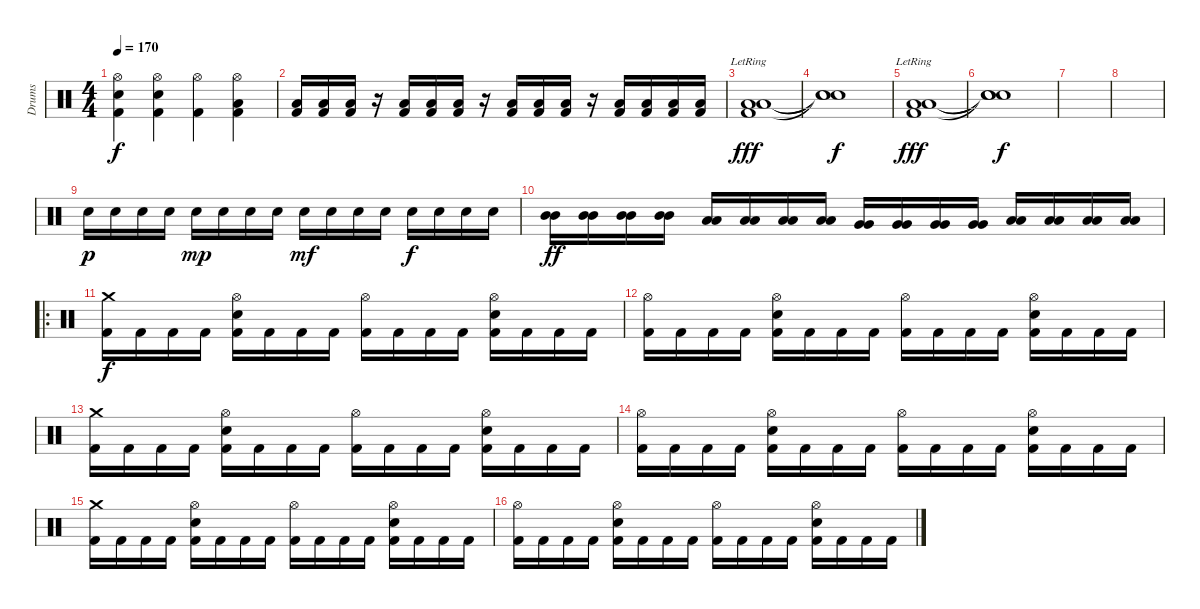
\track ("Drums" "Drums") {instrument percussion}
\staff {score}
\articulation defaults
\ts (4 4)
\tempo 170
\clef neutral
\ks c
("Hi-Hat (open)" "Snare (hit) 2" "Kick (hit) 2").4{dy f} ("Hi-Hat (open)" "Snare (hit) 2" "Kick (hit) 2").4 ("Hi-Hat (open)" "Kick (hit) 2").4 ("Hi-Hat (open)" "Low Tom (hit)" "Kick (hit) 2").4 |
("Low Floor Tom (hit)" "Kick (hit) 2").16 ("Low Floor Tom (hit)" "Kick (hit) 2").16 ("Low Floor Tom (hit)" "Kick (hit) 2").16 r.16 ("Low Floor Tom (hit)" "Kick (hit) 2").16 ("Low Floor Tom (hit)" "Kick (hit) 2").16 ("Low Floor Tom (hit)" "Kick (hit) 2").16 r.16 ("Low Floor Tom (hit)" "Kick (hit) 2").16 ("Low Floor Tom (hit)" "Kick (hit) 2").16 ("Low Floor Tom (hit)" "Kick (hit) 2").16 r.16 ("Low Floor Tom (hit)" "Kick (hit) 2").16 ("Low Floor Tom (hit)" "Kick (hit) 2").16 ("Low Floor Tom (hit)" "Kick (hit) 2").16 ("Low Floor Tom (hit)" "Kick (hit) 2").16 |
("Low Floor Tom (hit)"{lr} "Low Floor Tom (hit)"{lr} "Kick (hit) 2"{lr}).1{dy fff volume 16} |
("Snare (hit)"{t} "Snare (hit)"{t} "Snare (hit)"{t}).1{dy f} |
("Low Floor Tom (hit)"{lr} "Low Floor Tom (hit)"{lr} "Kick (hit) 2"{lr}).1{dy fff} |
("Snare (hit)"{t} "Snare (hit)"{t} "Snare (hit)"{t}).1{dy f} |
|
|
"Snare (hit) 2".16{dy p} "Snare (hit) 2".16 "Snare (hit) 2".16 "Snare (hit) 2".16 "Snare (hit) 2".16{dy mp} "Snare (hit) 2".16 "Snare (hit) 2".16 "Snare (hit) 2".16 "Snare (hit) 2".16{dy mf} "Snare (hit) 2".16 "Snare (hit) 2".16 "Snare (hit) 2".16 "Snare (hit) 2".16{dy f} "Snare (hit) 2".16 "Snare (hit) 2".16 "Snare (hit) 2".16 |
("Mid Tom (hit)" "Mid Tom (hit)").16{dy ff} ("Mid Tom (hit)" "Mid Tom (hit)").16 ("Mid Tom (hit)" "Mid Tom (hit)").16 ("Mid Tom (hit)" "Mid Tom (hit)").16 ("Low Tom (hit)" "Low Tom (hit)").16 ("Low Tom (hit)" "Low Tom (hit)").16 ("Low Tom (hit)" "Low Tom (hit)").16 ("Low Tom (hit)" "Low Tom (hit)").16 ("Very Low Tom (hit)" "Very Low Tom (hit)").16 ("Very Low Tom (hit)" "Very Low Tom (hit)").16 ("Very Low Tom (hit)" "Very Low Tom (hit)").16 ("Very Low Tom (hit)" "Very Low Tom (hit)").16 ("Low Floor Tom (hit)" "Low Floor Tom (hit)").16 ("Low Floor Tom (hit)" "Low Floor Tom (hit)").16 ("Low Floor Tom (hit)" "Low Floor Tom (hit)").16 ("Low Floor Tom (hit)" "Low Floor Tom (hit)").16 |
\ro
("Crash medium (hit)" "Kick (hit) 2").16{dy f} "Kick (hit) 2".16 "Kick (hit) 2".16 "Kick (hit) 2".16 ("Hi-Hat (open)" "Snare (hit) 2" "Kick (hit) 2").16 "Kick (hit) 2".16 "Kick (hit) 2".16 "Kick (hit) 2".16 ("Hi-Hat (open)" "Kick (hit) 2").16 "Kick (hit) 2".16 "Kick (hit) 2".16 "Kick (hit) 2".16 ("Hi-Hat (open)" "Snare (hit) 2" "Kick (hit) 2").16 "Kick (hit) 2".16 "Kick (hit) 2".16 "Kick (hit) 2".16 |
("Hi-Hat (open)" "Kick (hit) 2").16 "Kick (hit) 2".16 "Kick (hit) 2".16 "Kick (hit) 2".16 ("Hi-Hat (open)" "Snare (hit) 2" "Kick (hit) 2").16 "Kick (hit) 2".16 "Kick (hit) 2".16 "Kick (hit) 2".16 ("Hi-Hat (open)" "Kick (hit) 2").16 "Kick (hit) 2".16 "Kick (hit) 2".16 "Kick (hit) 2".16 ("Hi-Hat (open)" "Snare (hit) 2" "Kick (hit) 2").16 "Kick (hit) 2".16 "Kick (hit) 2".16 "Kick (hit) 2".16 |
("Crash medium (hit)" "Kick (hit) 2").16 "Kick (hit) 2".16 "Kick (hit) 2".16 "Kick (hit) 2".16 ("Hi-Hat (open)" "Snare (hit) 2" "Kick (hit) 2").16 "Kick (hit) 2".16 "Kick (hit) 2".16 "Kick (hit) 2".16 ("Hi-Hat (open)" "Kick (hit) 2").16 "Kick (hit) 2".16 "Kick (hit) 2".16 "Kick (hit) 2".16 ("Hi-Hat (open)" "Snare (hit) 2" "Kick (hit) 2").16 "Kick (hit) 2".16 "Kick (hit) 2".16 "Kick (hit) 2".16 |
("Hi-Hat (open)" "Kick (hit) 2").16 "Kick (hit) 2".16 "Kick (hit) 2".16 "Kick (hit) 2".16 ("Hi-Hat (open)" "Snare (hit) 2" "Kick (hit) 2").16 "Kick (hit) 2".16 "Kick (hit) 2".16 "Kick (hit) 2".16 ("Hi-Hat (open)" "Kick (hit) 2").16 "Kick (hit) 2".16 "Kick (hit) 2".16 "Kick (hit) 2".16 ("Hi-Hat (open)" "Snare (hit) 2" "Kick (hit) 2").16 "Kick (hit) 2".16 "Kick (hit) 2".16 "Kick (hit) 2".16 |
("Crash medium (hit)" "Kick (hit) 2").16 "Kick (hit) 2".16 "Kick (hit) 2".16 "Kick (hit) 2".16 ("Hi-Hat (open)" "Snare (hit) 2" "Kick (hit) 2").16 "Kick (hit) 2".16 "Kick (hit) 2".16 "Kick (hit) 2".16 ("Hi-Hat (open)" "Kick (hit) 2").16 "Kick (hit) 2".16 "Kick (hit) 2".16 "Kick (hit) 2".16 ("Hi-Hat (open)" "Snare (hit) 2" "Kick (hit) 2").16 "Kick (hit) 2".16 "Kick (hit) 2".16 "Kick (hit) 2".16 |
("Hi-Hat (open)" "Kick (hit) 2").16 "Kick (hit) 2".16 "Kick (hit) 2".16 "Kick (hit) 2".16 ("Hi-Hat (open)" "Snare (hit) 2" "Kick (hit) 2").16 "Kick (hit) 2".16 "Kick (hit) 2".16 "Kick (hit) 2".16 ("Hi-Hat (open)" "Kick (hit) 2").16 "Kick (hit) 2".16 "Kick (hit) 2".16 "Kick (hit) 2".16 ("Hi-Hat (open)" "Snare (hit) 2" "Kick (hit) 2").16 "Kick (hit) 2".16 "Kick (hit) 2".16 "Kick (hit) 2".16
